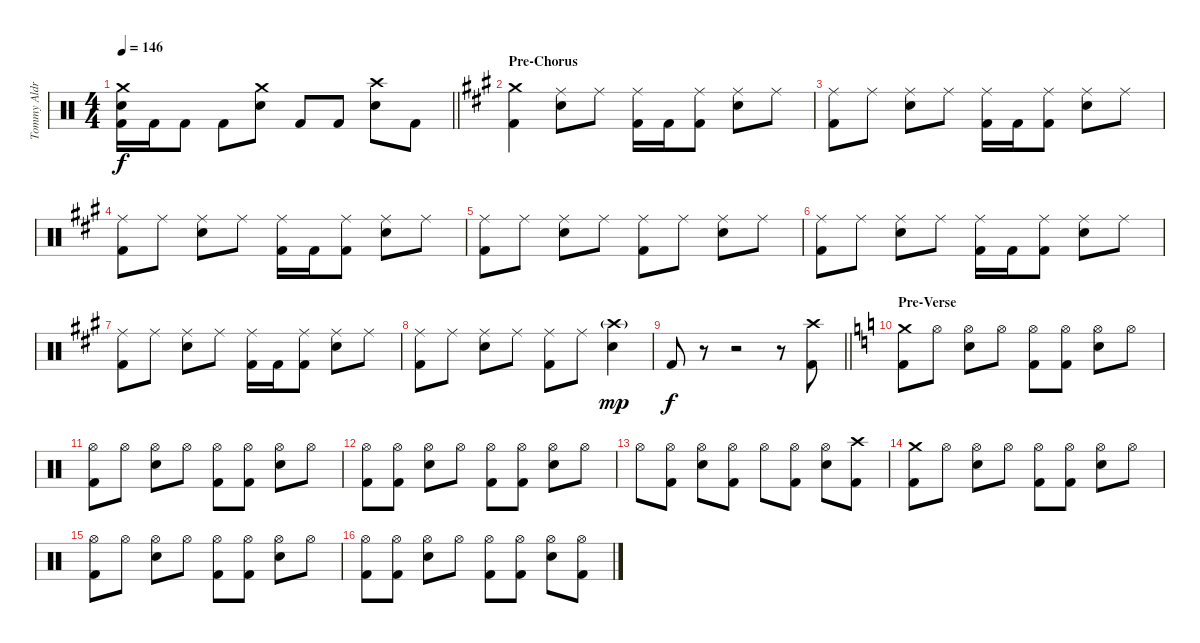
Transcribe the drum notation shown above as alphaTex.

\track ("Tommy Aldridge Drums" "Tommy Aldr") {instrument percussion}
\staff {score}
\articulation defaults
\ts (4 4)
\tempo 146
\clef neutral
\barLineRight lightlight
\ks c
("Crash medium (hit)" "Electric Snare (hit)" "Kick (hit) 2").16{dy f} "Kick (hit) 2".16 "Kick (hit) 2".8 "Kick (hit) 2".8 ("Crash medium (hit)" "Electric Snare (hit)").8 "Kick (hit) 2".8 "Kick (hit) 2".8 ("Crash high (hit)" "Electric Snare (hit)").8 "Kick (hit) 2".8 |
\section ("" "Pre-Chorus")
\ks f#minor
("Crash medium (hit)" "Kick (hit) 2").4 ("Ride (middle)" "Electric Snare (hit)").8 "Ride (middle)".8 ("Ride (middle)" "Kick (hit) 2").16 "Kick (hit) 2".16 ("Ride (middle)" "Kick (hit) 2").8 ("Ride (middle)" "Electric Snare (hit)").8 "Ride (middle)".8 |
("Ride (middle)" "Kick (hit) 2").8 "Ride (middle)".8 ("Ride (middle)" "Electric Snare (hit)").8 "Ride (middle)".8 ("Ride (middle)" "Kick (hit) 2").16 "Kick (hit) 2".16 ("Ride (middle)" "Kick (hit) 2").8 ("Ride (middle)" "Electric Snare (hit)").8 "Ride (middle)".8 |
("Ride (middle)" "Kick (hit) 2").8 "Ride (middle)".8 ("Ride (middle)" "Electric Snare (hit)").8 "Ride (middle)".8 ("Ride (middle)" "Kick (hit) 2").16 "Kick (hit) 2".16 ("Ride (middle)" "Kick (hit) 2").8 ("Ride (middle)" "Electric Snare (hit)").8 "Ride (middle)".8 |
("Ride (middle)" "Kick (hit) 2").8 "Ride (middle)".8 ("Ride (middle)" "Electric Snare (hit)").8 "Ride (middle)".8 ("Ride (middle)" "Kick (hit) 2").8 "Ride (middle)".8 ("Ride (middle)" "Electric Snare (hit)").8 "Ride (middle)".8 |
("Ride (middle)" "Kick (hit) 2").8 "Ride (middle)".8 ("Ride (middle)" "Electric Snare (hit)").8 "Ride (middle)".8 ("Ride (middle)" "Kick (hit) 2").16 "Kick (hit) 2".16 ("Ride (middle)" "Kick (hit) 2").8 ("Ride (middle)" "Electric Snare (hit)").8 "Ride (middle)".8 |
("Ride (middle)" "Kick (hit) 2").8 "Ride (middle)".8 ("Ride (middle)" "Electric Snare (hit)").8 "Ride (middle)".8 ("Ride (middle)" "Kick (hit) 2").16 "Kick (hit) 2".16 ("Ride (middle)" "Kick (hit) 2").8 ("Ride (middle)" "Electric Snare (hit)").8 "Ride (middle)".8 |
("Ride (middle)" "Kick (hit) 2").8 "Ride (middle)".8 ("Ride (middle)" "Electric Snare (hit)").8 "Ride (middle)".8 ("Ride (middle)" "Kick (hit) 2").8 "Ride (middle)".8 ("Crash high (hit)"{g} "Electric Snare (hit)").4{dy mp} |
\barLineRight lightlight "Kick (hit) 2".8{dy f}
r.8 r.2 r.8 ("Crash high (hit)" "Kick (hit) 2").8 |
\section ("" "Pre-Verse")
\ks aminor
("Crash medium (hit)" "Kick (hit) 2").8 "Hi-Hat (open)".8 ("Hi-Hat (open)" "Electric Snare (hit)").8 "Hi-Hat (open)".8 ("Hi-Hat (open)" "Kick (hit) 2").8 ("Hi-Hat (open)" "Kick (hit) 2").8 ("Hi-Hat (open)" "Electric Snare (hit)").8 "Hi-Hat (open)".8 |
("Hi-Hat (open)" "Kick (hit) 2").8 "Hi-Hat (open)".8 ("Hi-Hat (open)" "Electric Snare (hit)").8 "Hi-Hat (open)".8 ("Hi-Hat (open)" "Kick (hit) 2").8 ("Hi-Hat (open)" "Kick (hit) 2").8 ("Hi-Hat (open)" "Electric Snare (hit)").8 "Hi-Hat (open)".8 |
("Hi-Hat (open)" "Kick (hit) 2").8 ("Hi-Hat (open)" "Kick (hit) 2").8 ("Hi-Hat (open)" "Electric Snare (hit)").8 "Hi-Hat (open)".8 ("Hi-Hat (open)" "Kick (hit) 2").8 ("Hi-Hat (open)" "Kick (hit) 2").8 ("Hi-Hat (open)" "Electric Snare (hit)").8 "Hi-Hat (open)".8 |
"Hi-Hat (open)".8 ("Hi-Hat (open)" "Kick (hit) 2").8 ("Hi-Hat (open)" "Electric Snare (hit)").8 ("Hi-Hat (open)" "Kick (hit) 2").8 "Hi-Hat (open)".8 ("Hi-Hat (open)" "Kick (hit) 2").8 ("Hi-Hat (open)" "Electric Snare (hit)").8 ("Crash high (hit)" "Kick (hit) 2").8 |
("Crash medium (hit)" "Kick (hit) 2").8 "Hi-Hat (open)".8 ("Hi-Hat (open)" "Electric Snare (hit)").8 "Hi-Hat (open)".8 ("Hi-Hat (open)" "Kick (hit) 2").8 ("Hi-Hat (open)" "Kick (hit) 2").8 ("Hi-Hat (open)" "Electric Snare (hit)").8 "Hi-Hat (open)".8 |
("Hi-Hat (open)" "Kick (hit) 2").8 "Hi-Hat (open)".8 ("Hi-Hat (open)" "Electric Snare (hit)").8 "Hi-Hat (open)".8 ("Hi-Hat (open)" "Kick (hit) 2").8 ("Hi-Hat (open)" "Kick (hit) 2").8 ("Hi-Hat (open)" "Electric Snare (hit)").8 "Hi-Hat (open)".8 |
("Hi-Hat (open)" "Kick (hit) 2").8 ("Hi-Hat (open)" "Kick (hit) 2").8 ("Hi-Hat (open)" "Electric Snare (hit)").8 "Hi-Hat (open)".8 ("Hi-Hat (open)" "Kick (hit) 2").8 ("Hi-Hat (open)" "Kick (hit) 2").8 ("Hi-Hat (open)" "Electric Snare (hit)").8 ("Hi-Hat (open)" "Kick (hit) 2").8
